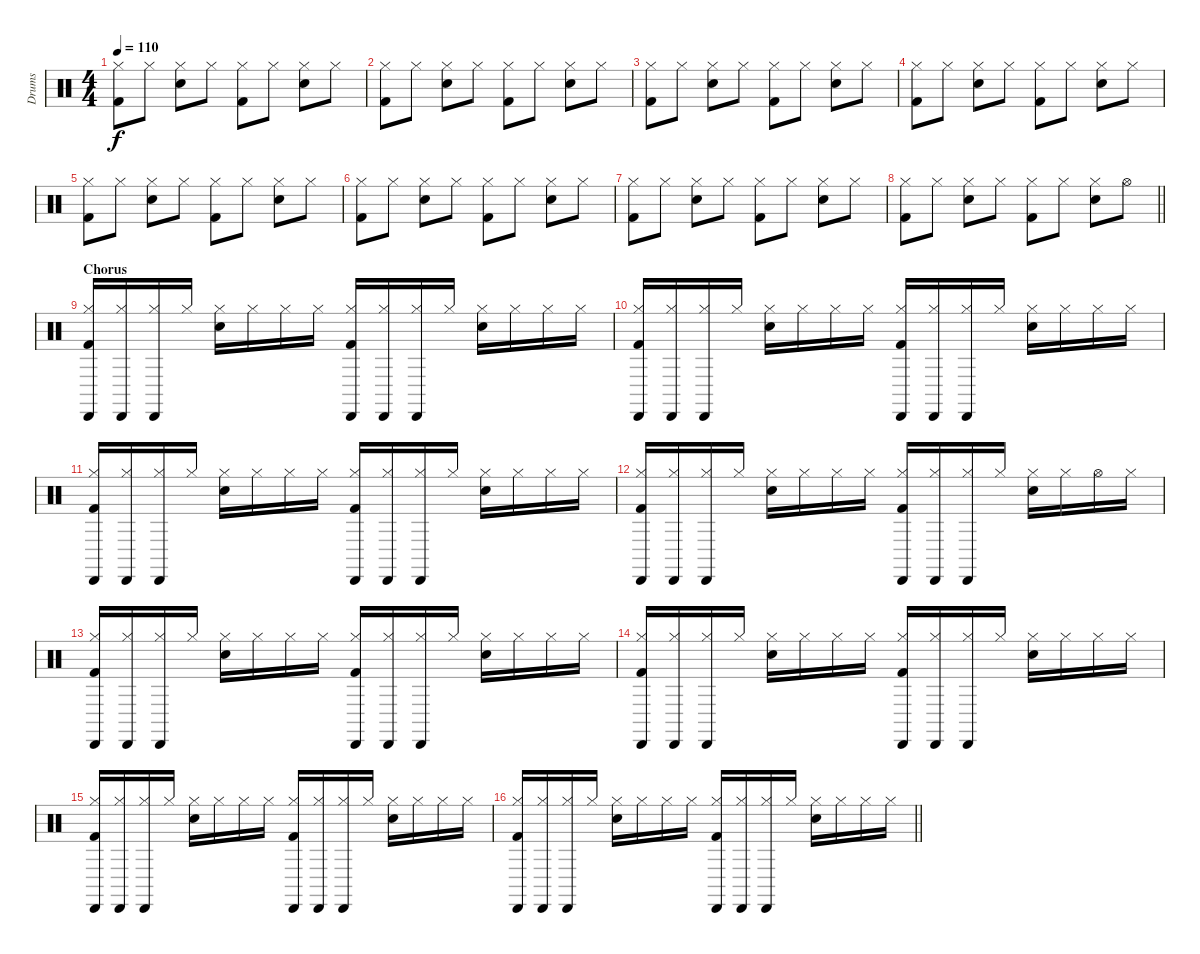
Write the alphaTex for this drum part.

\track ("Drums" "Drums") {instrument percussion}
\staff {score}
\articulation defaults
\ts (4 4)
\tempo 110
\clef neutral
\ks c
("Hi-Hat (closed)" "Kick (hit) 2").8{dy f} "Hi-Hat (closed)".8 ("Hi-Hat (closed)" "Electric Snare (hit)").8 "Hi-Hat (closed)".8 ("Hi-Hat (closed)" "Kick (hit) 2").8 "Hi-Hat (closed)".8 ("Hi-Hat (closed)" "Electric Snare (hit)").8 "Hi-Hat (closed)".8 |
("Hi-Hat (closed)" "Kick (hit) 2").8 "Hi-Hat (closed)".8 ("Hi-Hat (closed)" "Electric Snare (hit)").8 "Hi-Hat (closed)".8 ("Hi-Hat (closed)" "Kick (hit) 2").8 "Hi-Hat (closed)".8 ("Hi-Hat (closed)" "Electric Snare (hit)").8 "Hi-Hat (closed)".8 |
("Hi-Hat (closed)" "Kick (hit) 2").8 "Hi-Hat (closed)".8 ("Hi-Hat (closed)" "Electric Snare (hit)").8 "Hi-Hat (closed)".8 ("Hi-Hat (closed)" "Kick (hit) 2").8 "Hi-Hat (closed)".8 ("Hi-Hat (closed)" "Electric Snare (hit)").8 "Hi-Hat (closed)".8 |
("Hi-Hat (closed)" "Kick (hit) 2").8 "Hi-Hat (closed)".8 ("Hi-Hat (closed)" "Electric Snare (hit)").8 "Hi-Hat (closed)".8 ("Hi-Hat (closed)" "Kick (hit) 2").8 "Hi-Hat (closed)".8 ("Hi-Hat (closed)" "Electric Snare (hit)").8 "Hi-Hat (closed)".8 |
("Hi-Hat (closed)" "Kick (hit) 2").8 "Hi-Hat (closed)".8 ("Hi-Hat (closed)" "Electric Snare (hit)").8 "Hi-Hat (closed)".8 ("Hi-Hat (closed)" "Kick (hit) 2").8 "Hi-Hat (closed)".8 ("Hi-Hat (closed)" "Electric Snare (hit)").8 "Hi-Hat (closed)".8 |
("Hi-Hat (closed)" "Kick (hit) 2").8 "Hi-Hat (closed)".8 ("Hi-Hat (closed)" "Electric Snare (hit)").8 "Hi-Hat (closed)".8 ("Hi-Hat (closed)" "Kick (hit) 2").8 "Hi-Hat (closed)".8 ("Hi-Hat (closed)" "Electric Snare (hit)").8 "Hi-Hat (closed)".8 |
("Hi-Hat (closed)" "Kick (hit) 2").8 "Hi-Hat (closed)".8 ("Hi-Hat (closed)" "Electric Snare (hit)").8 "Hi-Hat (closed)".8 ("Hi-Hat (closed)" "Kick (hit) 2").8 "Hi-Hat (closed)".8 ("Hi-Hat (closed)" "Electric Snare (hit)").8 "Hi-Hat (closed)".8 |
\barLineRight lightlight
("Hi-Hat (closed)" "Kick (hit) 2").8 "Hi-Hat (closed)".8 ("Hi-Hat (closed)" "Electric Snare (hit)").8 "Hi-Hat (closed)".8 ("Hi-Hat (closed)" "Kick (hit) 2").8 "Hi-Hat (closed)".8 ("Hi-Hat (closed)" "Electric Snare (hit)").8 "Hi-Hat (open)".8 |
\section ("" "Chorus")
("Cabasa (hit)" "Kick (hit) 2" "Hi-Hat (closed)").16 ("Cabasa (hit)" "Hi-Hat (closed)").16 ("Cabasa (hit)" "Hi-Hat (closed)").16 "Hi-Hat (closed)".16 ("Electric Snare (hit)" "Hi-Hat (closed)").16 "Hi-Hat (closed)".16 "Hi-Hat (closed)".16 "Hi-Hat (closed)".16 ("Cabasa (hit)" "Kick (hit) 2" "Hi-Hat (closed)").16 ("Cabasa (hit)" "Hi-Hat (closed)").16 ("Cabasa (hit)" "Hi-Hat (closed)").16 "Hi-Hat (closed)".16 ("Electric Snare (hit)" "Hi-Hat (closed)").16 "Hi-Hat (closed)".16 "Hi-Hat (closed)".16 "Hi-Hat (closed)".16 |
("Cabasa (hit)" "Kick (hit) 2" "Hi-Hat (closed)").16 ("Cabasa (hit)" "Hi-Hat (closed)").16 ("Cabasa (hit)" "Hi-Hat (closed)").16 "Hi-Hat (closed)".16 ("Electric Snare (hit)" "Hi-Hat (closed)").16 "Hi-Hat (closed)".16 "Hi-Hat (closed)".16 "Hi-Hat (closed)".16 ("Cabasa (hit)" "Kick (hit) 2" "Hi-Hat (closed)").16 ("Cabasa (hit)" "Hi-Hat (closed)").16 ("Cabasa (hit)" "Hi-Hat (closed)").16 "Hi-Hat (closed)".16 ("Electric Snare (hit)" "Hi-Hat (closed)").16 "Hi-Hat (closed)".16 "Hi-Hat (closed)".16 "Hi-Hat (closed)".16 |
("Cabasa (hit)" "Kick (hit) 2" "Hi-Hat (closed)").16 ("Cabasa (hit)" "Hi-Hat (closed)").16 ("Cabasa (hit)" "Hi-Hat (closed)").16 "Hi-Hat (closed)".16 ("Electric Snare (hit)" "Hi-Hat (closed)").16 "Hi-Hat (closed)".16 "Hi-Hat (closed)".16 "Hi-Hat (closed)".16 ("Cabasa (hit)" "Kick (hit) 2" "Hi-Hat (closed)").16 ("Cabasa (hit)" "Hi-Hat (closed)").16 ("Cabasa (hit)" "Hi-Hat (closed)").16 "Hi-Hat (closed)".16 ("Electric Snare (hit)" "Hi-Hat (closed)").16 "Hi-Hat (closed)".16 "Hi-Hat (closed)".16 "Hi-Hat (closed)".16 |
("Cabasa (hit)" "Kick (hit) 2" "Hi-Hat (closed)").16 ("Cabasa (hit)" "Hi-Hat (closed)").16 ("Cabasa (hit)" "Hi-Hat (closed)").16 "Hi-Hat (closed)".16 ("Electric Snare (hit)" "Hi-Hat (closed)").16 "Hi-Hat (closed)".16 "Hi-Hat (closed)".16 "Hi-Hat (closed)".16 ("Cabasa (hit)" "Kick (hit) 2" "Hi-Hat (closed)").16 ("Cabasa (hit)" "Hi-Hat (closed)").16 ("Cabasa (hit)" "Hi-Hat (closed)").16 "Hi-Hat (closed)".16 ("Electric Snare (hit)" "Hi-Hat (closed)").16 "Hi-Hat (closed)".16 "Hi-Hat (open)".16 "Hi-Hat (closed)".16 |
("Cabasa (hit)" "Kick (hit) 2" "Hi-Hat (closed)").16 ("Cabasa (hit)" "Hi-Hat (closed)").16 ("Cabasa (hit)" "Hi-Hat (closed)").16 "Hi-Hat (closed)".16 ("Electric Snare (hit)" "Hi-Hat (closed)").16 "Hi-Hat (closed)".16 "Hi-Hat (closed)".16 "Hi-Hat (closed)".16 ("Cabasa (hit)" "Kick (hit) 2" "Hi-Hat (closed)").16 ("Cabasa (hit)" "Hi-Hat (closed)").16 ("Cabasa (hit)" "Hi-Hat (closed)").16 "Hi-Hat (closed)".16 ("Electric Snare (hit)" "Hi-Hat (closed)").16 "Hi-Hat (closed)".16 "Hi-Hat (closed)".16 "Hi-Hat (closed)".16 |
("Cabasa (hit)" "Kick (hit) 2" "Hi-Hat (closed)").16 ("Cabasa (hit)" "Hi-Hat (closed)").16 ("Cabasa (hit)" "Hi-Hat (closed)").16 "Hi-Hat (closed)".16 ("Electric Snare (hit)" "Hi-Hat (closed)").16 "Hi-Hat (closed)".16 "Hi-Hat (closed)".16 "Hi-Hat (closed)".16 ("Cabasa (hit)" "Kick (hit) 2" "Hi-Hat (closed)").16 ("Cabasa (hit)" "Hi-Hat (closed)").16 ("Cabasa (hit)" "Hi-Hat (closed)").16 "Hi-Hat (closed)".16 ("Electric Snare (hit)" "Hi-Hat (closed)").16 "Hi-Hat (closed)".16 "Hi-Hat (closed)".16 "Hi-Hat (closed)".16 |
("Cabasa (hit)" "Kick (hit) 2" "Hi-Hat (closed)").16 ("Cabasa (hit)" "Hi-Hat (closed)").16 ("Cabasa (hit)" "Hi-Hat (closed)").16 "Hi-Hat (closed)".16 ("Electric Snare (hit)" "Hi-Hat (closed)").16 "Hi-Hat (closed)".16 "Hi-Hat (closed)".16 "Hi-Hat (closed)".16 ("Cabasa (hit)" "Kick (hit) 2" "Hi-Hat (closed)").16 ("Cabasa (hit)" "Hi-Hat (closed)").16 ("Cabasa (hit)" "Hi-Hat (closed)").16 "Hi-Hat (closed)".16 ("Electric Snare (hit)" "Hi-Hat (closed)").16 "Hi-Hat (closed)".16 "Hi-Hat (closed)".16 "Hi-Hat (closed)".16 |
\barLineRight lightlight
("Cabasa (hit)" "Kick (hit) 2" "Hi-Hat (closed)").16 ("Cabasa (hit)" "Hi-Hat (closed)").16 ("Cabasa (hit)" "Hi-Hat (closed)").16 "Hi-Hat (closed)".16 ("Electric Snare (hit)" "Hi-Hat (closed)").16 "Hi-Hat (closed)".16 "Hi-Hat (closed)".16 "Hi-Hat (closed)".16 ("Cabasa (hit)" "Kick (hit) 2" "Hi-Hat (closed)").16 ("Cabasa (hit)" "Hi-Hat (closed)").16 ("Cabasa (hit)" "Hi-Hat (closed)").16 "Hi-Hat (closed)".16 ("Electric Snare (hit)" "Hi-Hat (closed)").16 "Hi-Hat (closed)".16 "Hi-Hat (closed)".16 "Hi-Hat (closed)".16
